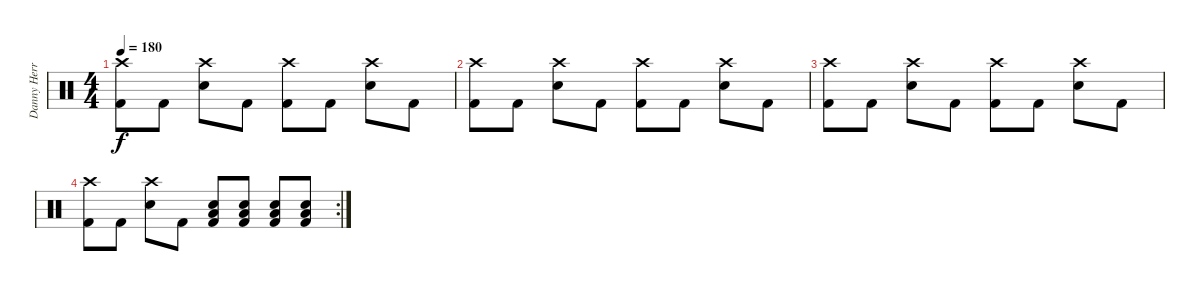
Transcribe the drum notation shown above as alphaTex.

\track ("Danny Herrera" "Danny Herr") {instrument percussion}
\staff {score}
\articulation defaults
\ts (4 4)
\tempo 180
\clef neutral
\ks c
("Crash high (hit)" "Kick (hit) 2").8{dy f} "Kick (hit) 2".8 ("Crash high (hit)" "Snare (hit) 2").8 "Kick (hit) 2".8 ("Crash high (hit)" "Kick (hit) 2").8 "Kick (hit) 2".8 ("Crash high (hit)" "Snare (hit) 2").8 "Kick (hit) 2".8 |
("Crash high (hit)" "Kick (hit) 2").8 "Kick (hit) 2".8 ("Crash high (hit)" "Snare (hit) 2").8 "Kick (hit) 2".8 ("Crash high (hit)" "Kick (hit) 2").8 "Kick (hit) 2".8 ("Crash high (hit)" "Snare (hit) 2").8 "Kick (hit) 2".8 |
("Crash high (hit)" "Kick (hit) 2").8 "Kick (hit) 2".8 ("Crash high (hit)" "Snare (hit) 2").8 "Kick (hit) 2".8 ("Crash high (hit)" "Kick (hit) 2").8 "Kick (hit) 2".8 ("Crash high (hit)" "Snare (hit) 2").8 "Kick (hit) 2".8 |
\rc 2
("Crash high (hit)" "Kick (hit) 2").8 "Kick (hit) 2".8 ("Crash high (hit)" "Snare (hit) 2").8 "Kick (hit) 2".8 ("Low Floor Tom (hit)" "Snare (hit) 2" "Kick (hit) 2").8 ("Low Floor Tom (hit)" "Snare (hit) 2" "Kick (hit) 2").8 ("Low Floor Tom (hit)" "Snare (hit) 2" "Kick (hit) 2").8 ("Low Floor Tom (hit)" "Snare (hit) 2" "Kick (hit) 2").8
